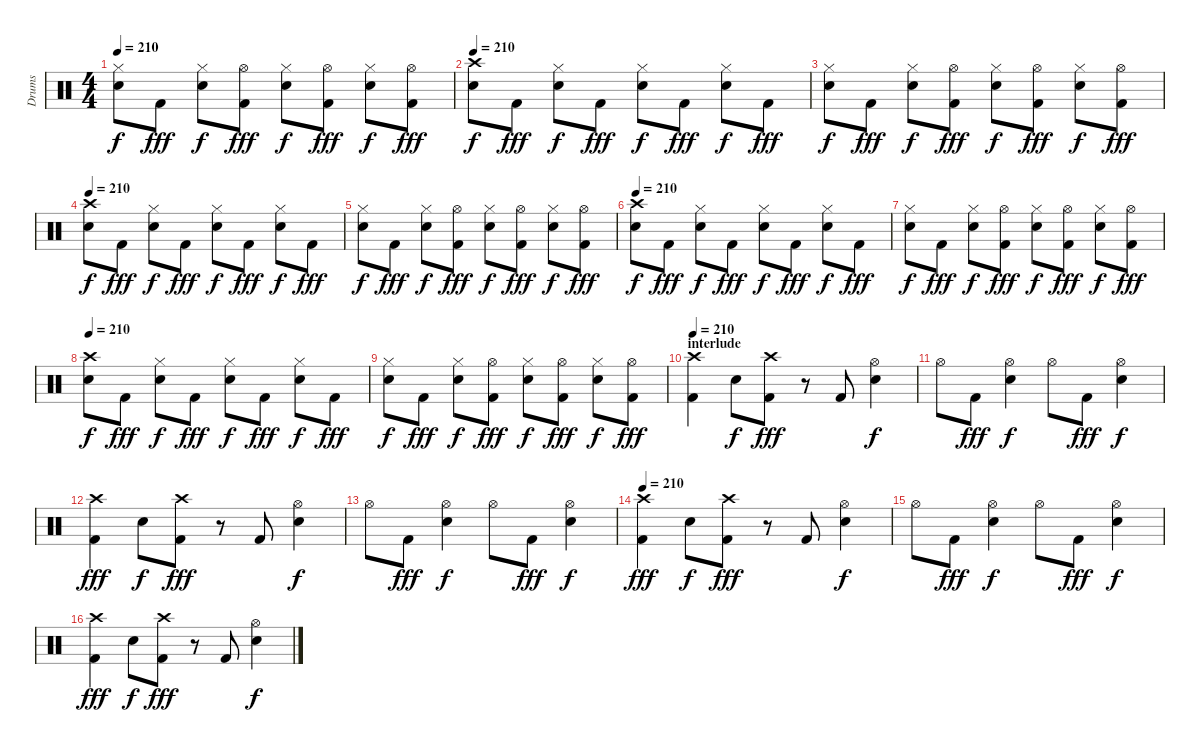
\track ("Drums" "Drums") {instrument percussion}
\staff {score}
\articulation defaults
\ts (4 4)
\tempo 210
\clef neutral
\ks c
("Hi-Hat (closed)" "Snare (hit) 2").8{dy f} "Kick (hit) 2".8{dy fff} ("Hi-Hat (closed)" "Snare (hit) 2").8{dy f} ("Hi-Hat (open)" "Kick (hit) 2").8{dy fff} ("Hi-Hat (closed)" "Snare (hit) 2").8{dy f} ("Hi-Hat (open)" "Kick (hit) 2").8{dy fff} ("Hi-Hat (closed)" "Snare (hit) 2").8{dy f} ("Hi-Hat (open)" "Kick (hit) 2").8{dy fff} |
\tempo 210
("Crash high (hit)" "Snare (hit) 2").8{dy f} "Kick (hit) 2".8{dy fff} ("Hi-Hat (closed)" "Snare (hit) 2").8{dy f} "Kick (hit) 2".8{dy fff} ("Hi-Hat (closed)" "Snare (hit) 2").8{dy f} "Kick (hit) 2".8{dy fff} ("Hi-Hat (closed)" "Snare (hit) 2").8{dy f} "Kick (hit) 2".8{dy fff} |
("Hi-Hat (closed)" "Snare (hit) 2").8{dy f} "Kick (hit) 2".8{dy fff} ("Hi-Hat (closed)" "Snare (hit) 2").8{dy f} ("Hi-Hat (open)" "Kick (hit) 2").8{dy fff} ("Hi-Hat (closed)" "Snare (hit) 2").8{dy f} ("Hi-Hat (open)" "Kick (hit) 2").8{dy fff} ("Hi-Hat (closed)" "Snare (hit) 2").8{dy f} ("Hi-Hat (open)" "Kick (hit) 2").8{dy fff} |
\tempo 210
("Crash high (hit)" "Snare (hit) 2").8{dy f} "Kick (hit) 2".8{dy fff} ("Hi-Hat (closed)" "Snare (hit) 2").8{dy f} "Kick (hit) 2".8{dy fff} ("Hi-Hat (closed)" "Snare (hit) 2").8{dy f} "Kick (hit) 2".8{dy fff} ("Hi-Hat (closed)" "Snare (hit) 2").8{dy f} "Kick (hit) 2".8{dy fff} |
("Hi-Hat (closed)" "Snare (hit) 2").8{dy f} "Kick (hit) 2".8{dy fff} ("Hi-Hat (closed)" "Snare (hit) 2").8{dy f} ("Hi-Hat (open)" "Kick (hit) 2").8{dy fff} ("Hi-Hat (closed)" "Snare (hit) 2").8{dy f} ("Hi-Hat (open)" "Kick (hit) 2").8{dy fff} ("Hi-Hat (closed)" "Snare (hit) 2").8{dy f} ("Hi-Hat (open)" "Kick (hit) 2").8{dy fff} |
\tempo 210
("Crash high (hit)" "Snare (hit) 2").8{dy f} "Kick (hit) 2".8{dy fff} ("Hi-Hat (closed)" "Snare (hit) 2").8{dy f} "Kick (hit) 2".8{dy fff} ("Hi-Hat (closed)" "Snare (hit) 2").8{dy f} "Kick (hit) 2".8{dy fff} ("Hi-Hat (closed)" "Snare (hit) 2").8{dy f} "Kick (hit) 2".8{dy fff} |
("Hi-Hat (closed)" "Snare (hit) 2").8{dy f} "Kick (hit) 2".8{dy fff} ("Hi-Hat (closed)" "Snare (hit) 2").8{dy f} ("Hi-Hat (open)" "Kick (hit) 2").8{dy fff} ("Hi-Hat (closed)" "Snare (hit) 2").8{dy f} ("Hi-Hat (open)" "Kick (hit) 2").8{dy fff} ("Hi-Hat (closed)" "Snare (hit) 2").8{dy f} ("Hi-Hat (open)" "Kick (hit) 2").8{dy fff} |
\tempo 210
("Crash high (hit)" "Snare (hit) 2").8{dy f} "Kick (hit) 2".8{dy fff} ("Hi-Hat (closed)" "Snare (hit) 2").8{dy f} "Kick (hit) 2".8{dy fff} ("Hi-Hat (closed)" "Snare (hit) 2").8{dy f} "Kick (hit) 2".8{dy fff} ("Hi-Hat (closed)" "Snare (hit) 2").8{dy f} "Kick (hit) 2".8{dy fff} |
("Hi-Hat (closed)" "Snare (hit) 2").8{dy f} "Kick (hit) 2".8{dy fff} ("Hi-Hat (closed)" "Snare (hit) 2").8{dy f} ("Hi-Hat (open)" "Kick (hit) 2").8{dy fff} ("Hi-Hat (closed)" "Snare (hit) 2").8{dy f} ("Hi-Hat (open)" "Kick (hit) 2").8{dy fff} ("Hi-Hat (closed)" "Snare (hit) 2").8{dy f} ("Hi-Hat (open)" "Kick (hit) 2").8{dy fff} |
\section ("" "interlude")
\tempo 210
("Crash high (hit)" "Kick (hit) 2").4 "Snare (hit) 2".8{dy f} ("Crash high (hit)" "Kick (hit) 2").8{dy fff} r.8 "Kick (hit) 2".8 ("Hi-Hat (open)" "Snare (hit) 2").4{dy f} |
"Hi-Hat (open)".8 "Kick (hit) 2".8{dy fff} ("Hi-Hat (open)" "Snare (hit) 2").4{dy f} "Hi-Hat (open)".8 "Kick (hit) 2".8{dy fff} ("Hi-Hat (open)" "Snare (hit) 2").4{dy f} |
("Crash high (hit)" "Kick (hit) 2").4{dy fff} "Snare (hit) 2".8{dy f} ("Crash high (hit)" "Kick (hit) 2").8{dy fff} r.8 "Kick (hit) 2".8 ("Hi-Hat (open)" "Snare (hit) 2").4{dy f} |
"Hi-Hat (open)".8 "Kick (hit) 2".8{dy fff} ("Hi-Hat (open)" "Snare (hit) 2").4{dy f} "Hi-Hat (open)".8 "Kick (hit) 2".8{dy fff} ("Hi-Hat (open)" "Snare (hit) 2").4{dy f} |
\tempo 210
("Crash high (hit)" "Kick (hit) 2").4{dy fff} "Snare (hit) 2".8{dy f} ("Crash high (hit)" "Kick (hit) 2").8{dy fff} r.8 "Kick (hit) 2".8 ("Hi-Hat (open)" "Snare (hit) 2").4{dy f} |
"Hi-Hat (open)".8 "Kick (hit) 2".8{dy fff} ("Hi-Hat (open)" "Snare (hit) 2").4{dy f} "Hi-Hat (open)".8 "Kick (hit) 2".8{dy fff} ("Hi-Hat (open)" "Snare (hit) 2").4{dy f} |
("Crash high (hit)" "Kick (hit) 2").4{dy fff} "Snare (hit) 2".8{dy f} ("Crash high (hit)" "Kick (hit) 2").8{dy fff} r.8 "Kick (hit) 2".8 ("Hi-Hat (open)" "Snare (hit) 2").4{dy f}
